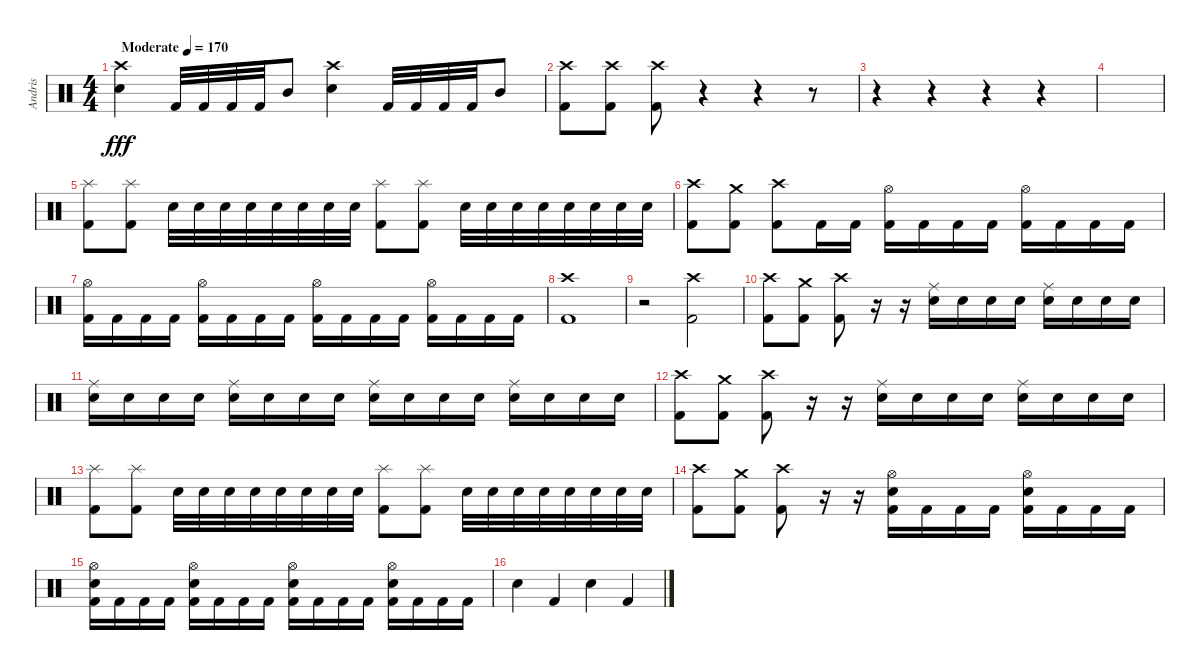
\track ("Andris" "Andris") {instrument percussion}
\staff {score}
\articulation defaults
\ts (4 4)
\tempo (170 "Moderate")
\clef neutral
\ks c
("Electric Snare (hit)" "Crash high (hit)").4{dy fff} "Kick (hit) 2".32 "Kick (hit) 2".32 "Kick (hit) 2".32 "Kick (hit) 2".32 "Mid Tom (hit)".8 ("Electric Snare (hit)" "Crash high (hit)").4 "Kick (hit) 2".32 "Kick (hit) 2".32 "Kick (hit) 2".32 "Kick (hit) 2".32 "Mid Tom (hit)".8 |
("Crash high (hit)" "Kick (hit) 2").8 ("Crash high (hit)" "Kick (hit) 2").8 ("Crash high (hit)" "Kick (hit) 2").8 r.4 r.4 r.8 |
r.4 r.4 r.4 r.4 |
|
("Splash (hit)" "Kick (hit) 2").8 ("Splash (hit)" "Kick (hit) 2").8 "Electric Snare (hit)".32 "Electric Snare (hit)".32 "Electric Snare (hit)".32 "Electric Snare (hit)".32 "Electric Snare (hit)".32 "Electric Snare (hit)".32 "Electric Snare (hit)".32 "Electric Snare (hit)".32 ("Splash (hit)" "Kick (hit) 2").8 ("Splash (hit)" "Kick (hit) 2").8 "Electric Snare (hit)".32 "Electric Snare (hit)".32 "Electric Snare (hit)".32 "Electric Snare (hit)".32 "Electric Snare (hit)".32 "Electric Snare (hit)".32 "Electric Snare (hit)".32 "Electric Snare (hit)".32 |
("Crash high (hit)" "Kick (hit) 2").8 ("Crash medium (hit)" "Kick (hit) 2").8 ("Crash high (hit)" "Kick (hit) 2").8 "Kick (hit) 2".16 "Kick (hit) 2".16 ("Hi-Hat (open)" "Kick (hit) 2").16 "Kick (hit) 2".16 "Kick (hit) 2".16 "Kick (hit) 2".16 ("Hi-Hat (open)" "Kick (hit) 2").16 "Kick (hit) 2".16 "Kick (hit) 2".16 "Kick (hit) 2".16 |
("Hi-Hat (open)" "Kick (hit) 2").16 "Kick (hit) 2".16 "Kick (hit) 2".16 "Kick (hit) 2".16 ("Hi-Hat (open)" "Kick (hit) 2").16 "Kick (hit) 2".16 "Kick (hit) 2".16 "Kick (hit) 2".16 ("Hi-Hat (open)" "Kick (hit) 2").16 "Kick (hit) 2".16 "Kick (hit) 2".16 "Kick (hit) 2".16 ("Hi-Hat (open)" "Kick (hit) 2").16 "Kick (hit) 2".16 "Kick (hit) 2".16 "Kick (hit) 2".16 |
("Crash high (hit)" "Kick (hit) 2").1 |
r.2 ("Crash high (hit)" "Kick (hit) 2").2 |
("Kick (hit) 2" "Crash high (hit)").8 ("Kick (hit) 2" "Crash medium (hit)").8 ("Kick (hit) 2" "Crash high (hit)").8 r.16 r.16 ("Ride (middle)" "Electric Snare (hit)").16 "Electric Snare (hit)".16 "Electric Snare (hit)".16 "Electric Snare (hit)".16 ("Ride (middle)" "Electric Snare (hit)").16 "Electric Snare (hit)".16 "Electric Snare (hit)".16 "Electric Snare (hit)".16 |
("Ride (middle)" "Electric Snare (hit)").16 "Electric Snare (hit)".16 "Electric Snare (hit)".16 "Electric Snare (hit)".16 ("Ride (middle)" "Electric Snare (hit)").16 "Electric Snare (hit)".16 "Electric Snare (hit)".16 "Electric Snare (hit)".16 ("Ride (middle)" "Electric Snare (hit)").16 "Electric Snare (hit)".16 "Electric Snare (hit)".16 "Electric Snare (hit)".16 ("Ride (middle)" "Electric Snare (hit)").16 "Electric Snare (hit)".16 "Electric Snare (hit)".16 "Electric Snare (hit)".16 |
("Kick (hit) 2" "Crash high (hit)").8 ("Kick (hit) 2" "Crash medium (hit)").8 ("Kick (hit) 2" "Crash high (hit)").8 r.16 r.16 ("Ride (middle)" "Electric Snare (hit)").16 "Electric Snare (hit)".16 "Electric Snare (hit)".16 "Electric Snare (hit)".16 ("Ride (middle)" "Electric Snare (hit)").16 "Electric Snare (hit)".16 "Electric Snare (hit)".16 "Electric Snare (hit)".16 |
("Splash (hit)" "Kick (hit) 2").8 ("Splash (hit)" "Kick (hit) 2").8 "Electric Snare (hit)".32 "Electric Snare (hit)".32 "Electric Snare (hit)".32 "Electric Snare (hit)".32 "Electric Snare (hit)".32 "Electric Snare (hit)".32 "Electric Snare (hit)".32 "Electric Snare (hit)".32 ("Splash (hit)" "Kick (hit) 2").8 ("Splash (hit)" "Kick (hit) 2").8 "Electric Snare (hit)".32 "Electric Snare (hit)".32 "Electric Snare (hit)".32 "Electric Snare (hit)".32 "Electric Snare (hit)".32 "Electric Snare (hit)".32 "Electric Snare (hit)".32 "Electric Snare (hit)".32 |
("Crash high (hit)" "Kick (hit) 2").8 ("Crash medium (hit)" "Kick (hit) 2").8 ("Crash high (hit)" "Kick (hit) 2").8 r.16 r.16 ("Hi-Hat (open)" "Kick (hit) 2" "Electric Snare (hit)").16 "Kick (hit) 2".16 "Kick (hit) 2".16 "Kick (hit) 2".16 ("Hi-Hat (open)" "Electric Snare (hit)" "Kick (hit) 2").16 "Kick (hit) 2".16 "Kick (hit) 2".16 "Kick (hit) 2".16 |
("Hi-Hat (open)" "Kick (hit) 2" "Electric Snare (hit)").16 "Kick (hit) 2".16 "Kick (hit) 2".16 "Kick (hit) 2".16 ("Hi-Hat (open)" "Electric Snare (hit)" "Kick (hit) 2").16 "Kick (hit) 2".16 "Kick (hit) 2".16 "Kick (hit) 2".16 ("Hi-Hat (open)" "Kick (hit) 2" "Electric Snare (hit)").16 "Kick (hit) 2".16 "Kick (hit) 2".16 "Kick (hit) 2".16 ("Hi-Hat (open)" "Electric Snare (hit)" "Kick (hit) 2").16 "Kick (hit) 2".16 "Kick (hit) 2".16 "Kick (hit) 2".16 |
"Electric Snare (hit)".4 "Kick (hit) 2".4 "Electric Snare (hit)".4 "Kick (hit) 2".4
